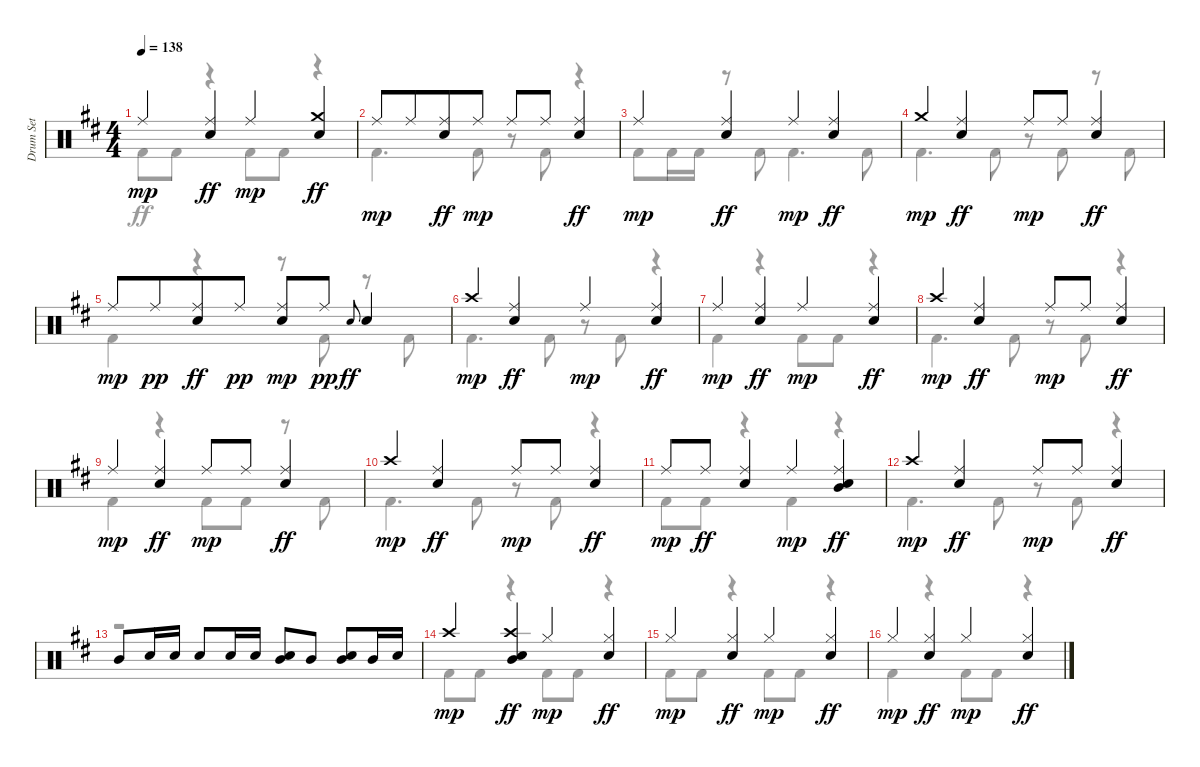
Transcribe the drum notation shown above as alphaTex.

\track ("Drum Set" "Drum Set") {instrument percussion}
\staff {score}
\articulation defaults
\voice
\ts (4 4)
\tempo 138
\clef neutral
\ks d "Ride (middle)".4{dy mp}
("Ride (middle)" "Electric Snare (hit)").4{dy ff} "Ride (middle)".4{dy mp} ("Crash medium (hit)" "Electric Snare (hit)").4{dy ff} |
"Ride (middle)".8{dy mp} "Ride (middle)".8{beam merge} ("Ride (middle)" "Electric Snare (hit)").8{dy ff} "Ride (middle)".8{dy mp} "Ride (middle)".8 "Ride (middle)".8 ("Ride (middle)" "Electric Snare (hit)").4{dy ff} |
"Ride (middle)".4{dy mp} ("Ride (middle)" "Electric Snare (hit)").4{dy ff} "Ride (middle)".4{dy mp} ("Ride (middle)" "Electric Snare (hit)").4{dy ff} |
"Crash medium (hit)".4{dy mp} ("Ride (middle)" "Electric Snare (hit)").4{dy ff} "Ride (middle)".8{dy mp} "Ride (middle)".8 ("Ride (middle)" "Electric Snare (hit)").4{dy ff} |
"Ride (middle)".8{dy mp} "Ride (middle)".8{dy pp beam merge} ("Ride (middle)" "Electric Snare (hit)").8{dy ff} "Ride (middle)".8{dy pp} ("Electric Snare (hit)" "Ride (middle)").8{dy mp} "Ride (middle)".8{dy pp} "Electric Snare (hit)".8{gr onbeat dy ff} "Electric Snare (hit)".4 |
"Crash high (hit)".4{dy mp} ("Ride (middle)" "Electric Snare (hit)").4{dy ff} "Ride (middle)".4{dy mp} ("Ride (middle)" "Electric Snare (hit)").4{dy ff} |
"Ride (middle)".4{dy mp} ("Ride (middle)" "Electric Snare (hit)").4{dy ff} "Ride (middle)".4{dy mp} ("Ride (middle)" "Electric Snare (hit)").4{dy ff} |
"Crash high (hit)".4{dy mp} ("Ride (middle)" "Electric Snare (hit)").4{dy ff} "Ride (middle)".8{dy mp} "Ride (middle)".8 ("Ride (middle)" "Electric Snare (hit)").4{dy ff} |
"Ride (middle)".4{dy mp} ("Ride (middle)" "Electric Snare (hit)").4{dy ff} "Ride (middle)".8{dy mp} "Ride (middle)".8 ("Ride (middle)" "Electric Snare (hit)").4{dy ff} |
"Crash high (hit)".4{dy mp} ("Ride (middle)" "Electric Snare (hit)").4{dy ff} "Ride (middle)".8{dy mp} "Ride (middle)".8 ("Ride (middle)" "Electric Snare (hit)").4{dy ff} |
"Ride (middle)".8{dy mp} "Ride (middle)".8{dy ff} ("Ride (middle)" "Electric Snare (hit)").4 "Ride (middle)".4{dy mp} ("Ride (middle)" "Electric Snare (hit)" "Mid Tom (hit)").4{dy ff} |
"Crash high (hit)".4{dy mp} ("Ride (middle)" "Electric Snare (hit)").4{dy ff} "Ride (middle)".8{dy mp} "Ride (middle)".8 ("Ride (middle)" "Electric Snare (hit)").4{dy ff} |
"Mid Tom (hit)".8{beam Up} "Electric Snare (hit)".16{beam Up} "Electric Snare (hit)".16{beam Up} "Electric Snare (hit)".8{beam Up} "Electric Snare (hit)".16{beam Up} "Electric Snare (hit)".16{beam Up} ("Electric Snare (hit)" "Mid Tom (hit)").8{beam Up} "Mid Tom (hit)".8{beam Up} ("Mid Tom (hit)" "Electric Snare (hit)").8{beam Up} "Mid Tom (hit)".16{beam Up} "Electric Snare (hit)".16{beam Up} |
"Crash high (hit)".4{dy mp} ("Crash high (hit)" "Electric Snare (hit)" "Mid Tom (hit)").4{dy ff} "Hi-Hat (closed)".4{dy mp} ("Hi-Hat (closed)" "Electric Snare (hit)").4{dy ff} |
"Hi-Hat (closed)".4{dy mp} ("Hi-Hat (closed)" "Electric Snare (hit)").4{dy ff} "Hi-Hat (closed)".4{dy mp} ("Hi-Hat (closed)" "Electric Snare (hit)").4{dy ff} |
"Hi-Hat (closed)".4{dy mp} ("Hi-Hat (closed)" "Electric Snare (hit)").4{dy ff} "Hi-Hat (closed)".4{dy mp} ("Hi-Hat (closed)" "Electric Snare (hit)").4{dy ff}
\voice
\clef neutral
\ottava regular
\simile none
\ks d "Kick (hit) 2".8{dy ff} "Kick (hit) 2".8
r.4 "Kick (hit) 2".8 "Kick (hit) 2".8 r.4 |
"Kick (hit) 2".4{d} "Kick (hit) 2".8 r.8 "Kick (hit) 2".8 r.4 |
"Kick (hit) 2".8 "Kick (hit) 2".16 "Kick (hit) 2".16 r.8 "Kick (hit) 2".8 "Kick (hit) 2".4{d} "Kick (hit) 2".8 |
"Kick (hit) 2".4{d} "Kick (hit) 2".8 r.8 "Kick (hit) 2".8 r.8 "Kick (hit) 2".8 |
"Kick (hit) 2".4 r.4 r.8 "Kick (hit) 2".8 r.8 "Kick (hit) 2".8 |
"Kick (hit) 2".4{d} "Kick (hit) 2".8 r.8 "Kick (hit) 2".8 r.4 |
"Kick (hit) 2".4 r.4 "Kick (hit) 2".8 "Kick (hit) 2".8 r.4 |
"Kick (hit) 2".4{d} "Kick (hit) 2".8 r.8 "Kick (hit) 2".8 r.4 |
"Kick (hit) 2".4 r.4 "Kick (hit) 2".8 "Kick (hit) 2".8 r.8 "Kick (hit) 2".8 |
"Kick (hit) 2".4{d} "Kick (hit) 2".8 r.8 "Kick (hit) 2".8 r.4 |
"Kick (hit) 2".8 "Kick (hit) 2".8 r.4 "Kick (hit) 2".4 r.4 |
"Kick (hit) 2".4{d} "Kick (hit) 2".8 r.8 "Kick (hit) 2".8 r.4 |
r.1 |
"Kick (hit) 2".8 "Kick (hit) 2".8 r.4 "Kick (hit) 2".8 "Kick (hit) 2".8 r.4 |
"Kick (hit) 2".8 "Kick (hit) 2".8 r.4 "Kick (hit) 2".8 "Kick (hit) 2".8 r.4 |
"Kick (hit) 2".4 r.4 "Kick (hit) 2".8 "Kick (hit) 2".8 r.4
